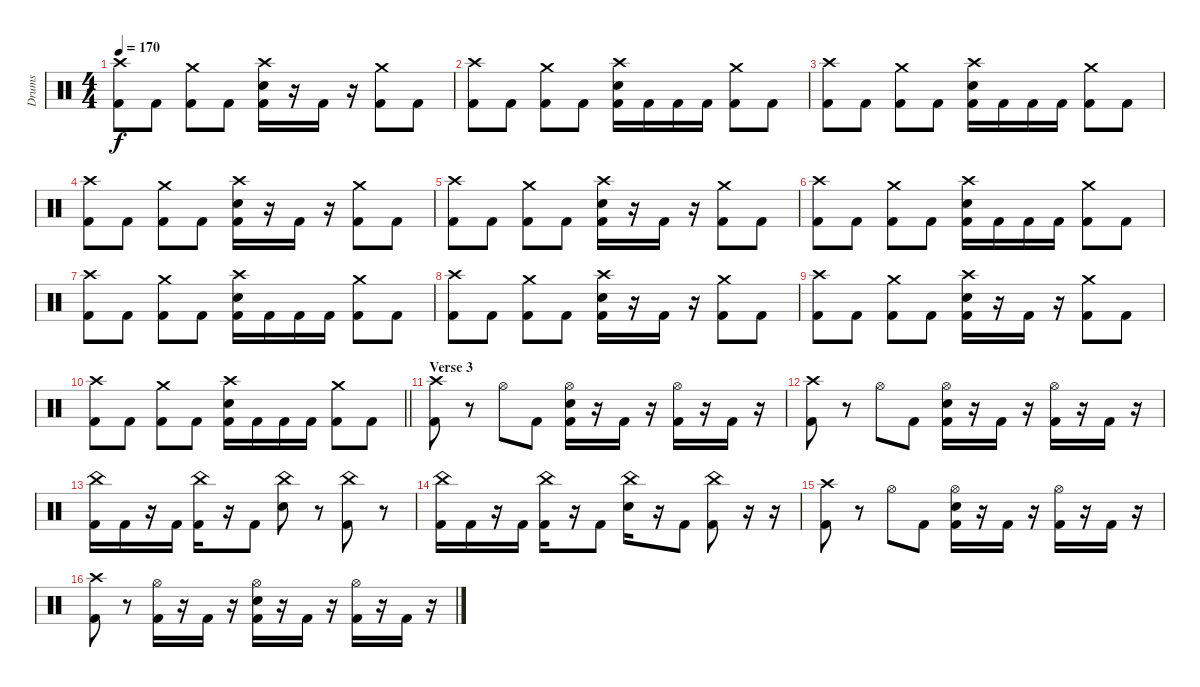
\track ("Drums" "Drums") {instrument percussion}
\staff {score}
\articulation defaults
\ts (4 4)
\tempo 170
\clef neutral
\ks c
("Crash high (hit)" "Kick (hit) 2").8{dy f} "Kick (hit) 2".8 ("Crash medium (hit)" "Kick (hit) 2").8 "Kick (hit) 2".8 ("Crash high (hit)" "Electric Snare (hit)" "Kick (hit) 2").16 r.16 "Kick (hit) 2".16 r.16 ("Crash medium (hit)" "Kick (hit) 2").8 "Kick (hit) 2".8 |
("Crash high (hit)" "Kick (hit) 2").8 "Kick (hit) 2".8 ("Crash medium (hit)" "Kick (hit) 2").8 "Kick (hit) 2".8 ("Crash high (hit)" "Electric Snare (hit)" "Kick (hit) 2").16 "Kick (hit) 2".16 "Kick (hit) 2".16 "Kick (hit) 2".16 ("Crash medium (hit)" "Kick (hit) 2").8 "Kick (hit) 2".8 |
("Crash high (hit)" "Kick (hit) 2").8 "Kick (hit) 2".8 ("Crash medium (hit)" "Kick (hit) 2").8 "Kick (hit) 2".8 ("Crash high (hit)" "Electric Snare (hit)" "Kick (hit) 2").16 "Kick (hit) 2".16 "Kick (hit) 2".16 "Kick (hit) 2".16 ("Crash medium (hit)" "Kick (hit) 2").8 "Kick (hit) 2".8 |
("Crash high (hit)" "Kick (hit) 2").8 "Kick (hit) 2".8 ("Crash medium (hit)" "Kick (hit) 2").8 "Kick (hit) 2".8 ("Crash high (hit)" "Electric Snare (hit)" "Kick (hit) 2").16 r.16 "Kick (hit) 2".16 r.16 ("Crash medium (hit)" "Kick (hit) 2").8 "Kick (hit) 2".8 |
("Crash high (hit)" "Kick (hit) 2").8 "Kick (hit) 2".8 ("Crash medium (hit)" "Kick (hit) 2").8 "Kick (hit) 2".8 ("Crash high (hit)" "Electric Snare (hit)" "Kick (hit) 2").16 r.16 "Kick (hit) 2".16 r.16 ("Crash medium (hit)" "Kick (hit) 2").8 "Kick (hit) 2".8 |
("Crash high (hit)" "Kick (hit) 2").8 "Kick (hit) 2".8 ("Crash medium (hit)" "Kick (hit) 2").8 "Kick (hit) 2".8 ("Crash high (hit)" "Electric Snare (hit)" "Kick (hit) 2").16 "Kick (hit) 2".16 "Kick (hit) 2".16 "Kick (hit) 2".16 ("Crash medium (hit)" "Kick (hit) 2").8 "Kick (hit) 2".8 |
("Crash high (hit)" "Kick (hit) 2").8 "Kick (hit) 2".8 ("Crash medium (hit)" "Kick (hit) 2").8 "Kick (hit) 2".8 ("Crash high (hit)" "Electric Snare (hit)" "Kick (hit) 2").16 "Kick (hit) 2".16 "Kick (hit) 2".16 "Kick (hit) 2".16 ("Crash medium (hit)" "Kick (hit) 2").8 "Kick (hit) 2".8 |
("Crash high (hit)" "Kick (hit) 2").8 "Kick (hit) 2".8 ("Crash medium (hit)" "Kick (hit) 2").8 "Kick (hit) 2".8 ("Crash high (hit)" "Electric Snare (hit)" "Kick (hit) 2").16 r.16 "Kick (hit) 2".16 r.16 ("Crash medium (hit)" "Kick (hit) 2").8 "Kick (hit) 2".8 |
("Crash high (hit)" "Kick (hit) 2").8 "Kick (hit) 2".8 ("Crash medium (hit)" "Kick (hit) 2").8 "Kick (hit) 2".8 ("Crash high (hit)" "Electric Snare (hit)" "Kick (hit) 2").16 r.16 "Kick (hit) 2".16 r.16 ("Crash medium (hit)" "Kick (hit) 2").8 "Kick (hit) 2".8 |
\barLineRight lightlight
("Crash high (hit)" "Kick (hit) 2").8 "Kick (hit) 2".8 ("Crash medium (hit)" "Kick (hit) 2").8 "Kick (hit) 2".8 ("Crash high (hit)" "Electric Snare (hit)" "Kick (hit) 2").16 "Kick (hit) 2".16 "Kick (hit) 2".16 "Kick (hit) 2".16 ("Crash medium (hit)" "Kick (hit) 2").8 "Kick (hit) 2".8 |
\section ("" "Verse 3")
("Crash high (hit)" "Kick (hit) 2").8 r.8 "Hi-Hat (open)".8 "Kick (hit) 2".8 ("Hi-Hat (open)" "Electric Snare (hit)" "Kick (hit) 2").16 r.16 "Kick (hit) 2".16 r.16 ("Kick (hit) 2" "Hi-Hat (open)").16 r.16 "Kick (hit) 2".16 r.16 |
("Crash high (hit)" "Kick (hit) 2").8 r.8 "Hi-Hat (open)".8 "Kick (hit) 2".8 ("Hi-Hat (open)" "Electric Snare (hit)" "Kick (hit) 2").16 r.16 "Kick (hit) 2".16 r.16 ("Kick (hit) 2" "Hi-Hat (open)").16 r.16 "Kick (hit) 2".16 r.16 |
("Kick (hit) 2" "China (hit)").16 "Kick (hit) 2".16 r.16 "Kick (hit) 2".16 ("Kick (hit) 2" "China (hit)").16 r.16 "Kick (hit) 2".8 ("Electric Snare (hit)" "China (hit)").8 r.8 ("Kick (hit) 2" "China (hit)").8 r.8 |
("Kick (hit) 2" "China (hit)").16 "Kick (hit) 2".16 r.16 "Kick (hit) 2".16 ("Kick (hit) 2" "China (hit)").16 r.16 "Kick (hit) 2".8 ("Electric Snare (hit)" "China (hit)").16 r.16 "Kick (hit) 2".8 ("Kick (hit) 2" "China (hit)").8 r.16 r.16 |
("Crash high (hit)" "Kick (hit) 2").8 r.8 "Hi-Hat (open)".8 "Kick (hit) 2".8 ("Hi-Hat (open)" "Electric Snare (hit)" "Kick (hit) 2").16 r.16 "Kick (hit) 2".16 r.16 ("Kick (hit) 2" "Hi-Hat (open)").16 r.16 "Kick (hit) 2".16 r.16 |
("Crash high (hit)" "Kick (hit) 2").8 r.8 ("Hi-Hat (open)" "Kick (hit) 2").16 r.16 "Kick (hit) 2".16 r.16 ("Hi-Hat (open)" "Electric Snare (hit)" "Kick (hit) 2").16 r.16 "Kick (hit) 2".16 r.16 ("Kick (hit) 2" "Hi-Hat (open)").16 r.16 "Kick (hit) 2".16 r.16
